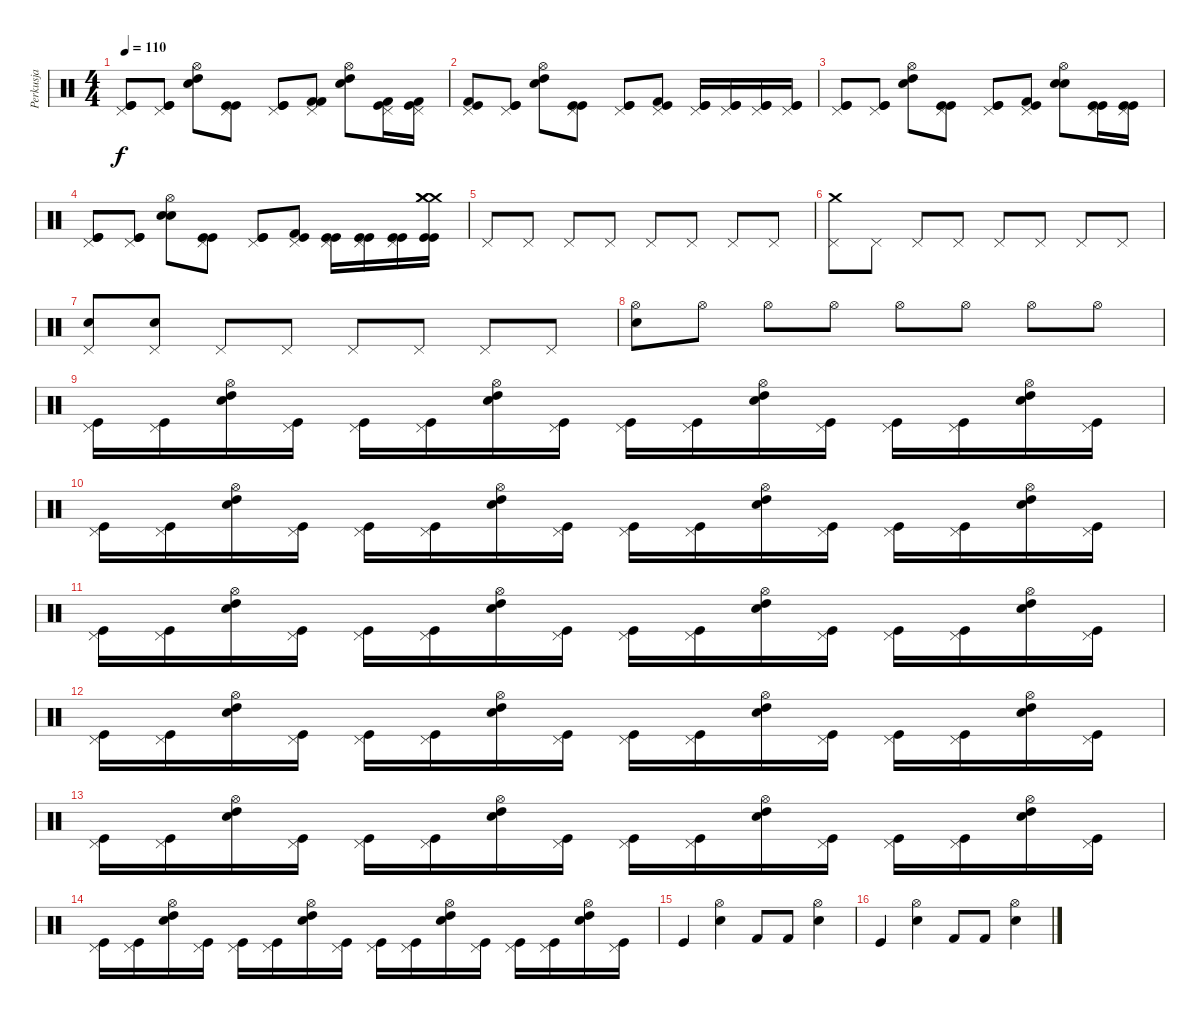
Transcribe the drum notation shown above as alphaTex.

\track ("Perkusja" "Perkusja") {instrument percussion}
\staff {score}
\articulation defaults
\ts (4 4)
\tempo 110
\clef neutral
\ks c
("Pedal Hi-Hat (hit)" "Kick (hit)" "Kick (hit)").8{dy f} ("Pedal Hi-Hat (hit)" "Kick (hit)" "Kick (hit)").8 ("Hi-Hat (open)" "Snare (hit) 2" "High Tom (hit)").8 ("Pedal Hi-Hat (hit)" "Kick (hit)" "Kick (hit)").8 ("Pedal Hi-Hat (hit)" "Kick (hit)" "Kick (hit)").8 ("Pedal Hi-Hat (hit)" "Kick (hit) 2" "Kick (hit) 2").8 ("Hi-Hat (open)" "Snare (hit) 2" "High Tom (hit)").8 ("Pedal Hi-Hat (hit)" "Kick (hit)" "Kick (hit) 2").16 ("Pedal Hi-Hat (hit)" "Kick (hit)" "Kick (hit) 2").16 |
("Pedal Hi-Hat (hit)" "Kick (hit)" "Kick (hit) 2").8 ("Pedal Hi-Hat (hit)" "Kick (hit)" "Kick (hit)").8 ("Hi-Hat (open)" "Snare (hit) 2" "High Tom (hit)").8 ("Pedal Hi-Hat (hit)" "Kick (hit)" "Kick (hit)").8 ("Pedal Hi-Hat (hit)" "Kick (hit)" "Kick (hit)").8 ("Pedal Hi-Hat (hit)" "Kick (hit) 2" "Kick (hit)").8 ("Pedal Hi-Hat (hit)" "Kick (hit)" "Kick (hit)").16 ("Pedal Hi-Hat (hit)" "Kick (hit)" "Kick (hit)").16 ("Pedal Hi-Hat (hit)" "Kick (hit)" "Kick (hit)").16 ("Pedal Hi-Hat (hit)" "Kick (hit)" "Kick (hit)").16 |
("Pedal Hi-Hat (hit)" "Kick (hit)" "Kick (hit)").8 ("Pedal Hi-Hat (hit)" "Kick (hit)" "Kick (hit)").8 ("Hi-Hat (open)" "Snare (hit) 2" "High Tom (hit)").8 ("Pedal Hi-Hat (hit)" "Kick (hit)" "Kick (hit)").8 ("Pedal Hi-Hat (hit)" "Kick (hit)" "Kick (hit)").8 ("Pedal Hi-Hat (hit)" "Kick (hit) 2" "Kick (hit)").8 ("Hi-Hat (open)" "Snare (hit) 2" "Snare (hit) 2").8 ("Pedal Hi-Hat (hit)" "Kick (hit)" "Kick (hit)").16 ("Pedal Hi-Hat (hit)" "Kick (hit)" "Kick (hit)").16 |
("Pedal Hi-Hat (hit)" "Kick (hit)" "Kick (hit)").8 ("Pedal Hi-Hat (hit)" "Kick (hit)" "Kick (hit)").8 ("Hi-Hat (open)" "Snare (hit) 2" "Snare (hit) 2").8 ("Pedal Hi-Hat (hit)" "Kick (hit)" "Kick (hit)").8 ("Pedal Hi-Hat (hit)" "Kick (hit)" "Kick (hit)").8 ("Pedal Hi-Hat (hit)" "Kick (hit) 2" "Kick (hit)").8 ("Pedal Hi-Hat (hit)" "Kick (hit)" "Kick (hit)").16 ("Pedal Hi-Hat (hit)" "Kick (hit)" "Kick (hit)").16 ("Pedal Hi-Hat (hit)" "Kick (hit)" "Kick (hit)").16 ("Crash medium (hit)" "Crash medium (hit)" "Crash medium (hit)" "Kick (hit)" "Kick (hit)").16 |
"Pedal Hi-Hat (hit)".8 "Pedal Hi-Hat (hit)".8 "Pedal Hi-Hat (hit)".8 "Pedal Hi-Hat (hit)".8 "Pedal Hi-Hat (hit)".8 "Pedal Hi-Hat (hit)".8 "Pedal Hi-Hat (hit)".8 "Pedal Hi-Hat (hit)".8 |
("Crash medium (hit)" "Pedal Hi-Hat (hit)").8 "Pedal Hi-Hat (hit)".8 "Pedal Hi-Hat (hit)".8 "Pedal Hi-Hat (hit)".8 "Pedal Hi-Hat (hit)".8 "Pedal Hi-Hat (hit)".8 "Pedal Hi-Hat (hit)".8 "Pedal Hi-Hat (hit)".8 |
("Snare (hit) 2" "Pedal Hi-Hat (hit)").8 ("Snare (hit) 2" "Pedal Hi-Hat (hit)").8 "Pedal Hi-Hat (hit)".8 "Pedal Hi-Hat (hit)".8 "Pedal Hi-Hat (hit)".8 "Pedal Hi-Hat (hit)".8 "Pedal Hi-Hat (hit)".8 "Pedal Hi-Hat (hit)".8 |
("Snare (hit) 2" "Hi-Hat (open)").8 "Hi-Hat (open)".8 "Hi-Hat (open)".8 "Hi-Hat (open)".8 "Hi-Hat (open)".8 "Hi-Hat (open)".8 "Hi-Hat (open)".8 "Hi-Hat (open)".8 |
("Pedal Hi-Hat (hit)" "Kick (hit)").16 ("Pedal Hi-Hat (hit)" "Kick (hit)").16 ("Hi-Hat (open)" "Snare (hit) 2" "High Tom (hit)").16 ("Pedal Hi-Hat (hit)" "Kick (hit)").16 ("Pedal Hi-Hat (hit)" "Kick (hit)").16 ("Pedal Hi-Hat (hit)" "Kick (hit)").16 ("Hi-Hat (open)" "Snare (hit) 2" "High Tom (hit)").16 ("Pedal Hi-Hat (hit)" "Kick (hit)").16 ("Pedal Hi-Hat (hit)" "Kick (hit)").16 ("Pedal Hi-Hat (hit)" "Kick (hit)").16 ("Hi-Hat (open)" "Snare (hit) 2" "High Tom (hit)").16 ("Pedal Hi-Hat (hit)" "Kick (hit)").16 ("Pedal Hi-Hat (hit)" "Kick (hit)").16 ("Pedal Hi-Hat (hit)" "Kick (hit)").16 ("Hi-Hat (open)" "Snare (hit) 2" "High Tom (hit)").16 ("Pedal Hi-Hat (hit)" "Kick (hit)").16 |
("Pedal Hi-Hat (hit)" "Kick (hit)").16 ("Pedal Hi-Hat (hit)" "Kick (hit)").16 ("Hi-Hat (open)" "Snare (hit) 2" "High Tom (hit)").16 ("Pedal Hi-Hat (hit)" "Kick (hit)").16 ("Pedal Hi-Hat (hit)" "Kick (hit)").16 ("Pedal Hi-Hat (hit)" "Kick (hit)").16 ("Hi-Hat (open)" "Snare (hit) 2" "High Tom (hit)").16 ("Pedal Hi-Hat (hit)" "Kick (hit)").16 ("Pedal Hi-Hat (hit)" "Kick (hit)").16 ("Pedal Hi-Hat (hit)" "Kick (hit)").16 ("Hi-Hat (open)" "Snare (hit) 2" "High Tom (hit)").16 ("Pedal Hi-Hat (hit)" "Kick (hit)").16 ("Pedal Hi-Hat (hit)" "Kick (hit)").16 ("Pedal Hi-Hat (hit)" "Kick (hit)").16 ("Hi-Hat (open)" "Snare (hit) 2" "High Tom (hit)").16 ("Pedal Hi-Hat (hit)" "Kick (hit)").16 |
("Pedal Hi-Hat (hit)" "Kick (hit)").16 ("Pedal Hi-Hat (hit)" "Kick (hit)").16 ("Hi-Hat (open)" "Snare (hit) 2" "High Tom (hit)").16 ("Pedal Hi-Hat (hit)" "Kick (hit)").16 ("Pedal Hi-Hat (hit)" "Kick (hit)").16 ("Pedal Hi-Hat (hit)" "Kick (hit)").16 ("Hi-Hat (open)" "Snare (hit) 2" "High Tom (hit)").16 ("Pedal Hi-Hat (hit)" "Kick (hit)").16 ("Pedal Hi-Hat (hit)" "Kick (hit)").16 ("Pedal Hi-Hat (hit)" "Kick (hit)").16 ("Hi-Hat (open)" "Snare (hit) 2" "High Tom (hit)").16 ("Pedal Hi-Hat (hit)" "Kick (hit)").16 ("Pedal Hi-Hat (hit)" "Kick (hit)").16 ("Pedal Hi-Hat (hit)" "Kick (hit)").16 ("Hi-Hat (open)" "Snare (hit) 2" "High Tom (hit)").16 ("Pedal Hi-Hat (hit)" "Kick (hit)").16 |
("Pedal Hi-Hat (hit)" "Kick (hit)").16 ("Pedal Hi-Hat (hit)" "Kick (hit)").16 ("Hi-Hat (open)" "Snare (hit) 2" "High Tom (hit)").16 ("Pedal Hi-Hat (hit)" "Kick (hit)").16 ("Pedal Hi-Hat (hit)" "Kick (hit)").16 ("Pedal Hi-Hat (hit)" "Kick (hit)").16 ("Hi-Hat (open)" "Snare (hit) 2" "High Tom (hit)").16 ("Pedal Hi-Hat (hit)" "Kick (hit)").16 ("Pedal Hi-Hat (hit)" "Kick (hit)").16 ("Pedal Hi-Hat (hit)" "Kick (hit)").16 ("Hi-Hat (open)" "Snare (hit) 2" "High Tom (hit)").16 ("Pedal Hi-Hat (hit)" "Kick (hit)").16 ("Pedal Hi-Hat (hit)" "Kick (hit)").16 ("Pedal Hi-Hat (hit)" "Kick (hit)").16 ("Hi-Hat (open)" "Snare (hit) 2" "High Tom (hit)").16 ("Pedal Hi-Hat (hit)" "Kick (hit)").16 |
("Pedal Hi-Hat (hit)" "Kick (hit)").16 ("Pedal Hi-Hat (hit)" "Kick (hit)").16 ("Hi-Hat (open)" "Snare (hit) 2" "High Tom (hit)").16 ("Pedal Hi-Hat (hit)" "Kick (hit)").16 ("Pedal Hi-Hat (hit)" "Kick (hit)").16 ("Pedal Hi-Hat (hit)" "Kick (hit)").16 ("Hi-Hat (open)" "Snare (hit) 2" "High Tom (hit)").16 ("Pedal Hi-Hat (hit)" "Kick (hit)").16 ("Pedal Hi-Hat (hit)" "Kick (hit)").16 ("Pedal Hi-Hat (hit)" "Kick (hit)").16 ("Hi-Hat (open)" "Snare (hit) 2" "High Tom (hit)").16 ("Pedal Hi-Hat (hit)" "Kick (hit)").16 ("Pedal Hi-Hat (hit)" "Kick (hit)").16 ("Pedal Hi-Hat (hit)" "Kick (hit)").16 ("Hi-Hat (open)" "Snare (hit) 2" "High Tom (hit)").16 ("Pedal Hi-Hat (hit)" "Kick (hit)").16 |
("Pedal Hi-Hat (hit)" "Kick (hit)").16 ("Pedal Hi-Hat (hit)" "Kick (hit)").16 ("Hi-Hat (open)" "Snare (hit) 2" "High Tom (hit)").16 ("Pedal Hi-Hat (hit)" "Kick (hit)").16 ("Pedal Hi-Hat (hit)" "Kick (hit)").16 ("Pedal Hi-Hat (hit)" "Kick (hit)").16 ("Hi-Hat (open)" "Snare (hit) 2" "High Tom (hit)").16 ("Pedal Hi-Hat (hit)" "Kick (hit)").16 ("Pedal Hi-Hat (hit)" "Kick (hit)").16 ("Pedal Hi-Hat (hit)" "Kick (hit)").16 ("Hi-Hat (open)" "Snare (hit) 2" "High Tom (hit)").16 ("Pedal Hi-Hat (hit)" "Kick (hit)").16 ("Pedal Hi-Hat (hit)" "Kick (hit)").16 ("Pedal Hi-Hat (hit)" "Kick (hit)").16 ("Hi-Hat (open)" "Snare (hit) 2" "High Tom (hit)").16 ("Pedal Hi-Hat (hit)" "Kick (hit)").16 |
"Kick (hit)".4 ("Hi-Hat (open)" "Snare (hit) 2").4 "Kick (hit) 2".8 "Kick (hit) 2".8 ("Hi-Hat (open)" "Snare (hit) 2").4 |
"Kick (hit)".4 ("Hi-Hat (open)" "Snare (hit) 2").4 "Kick (hit) 2".8 "Kick (hit) 2".8 ("Hi-Hat (open)" "Snare (hit) 2").4
